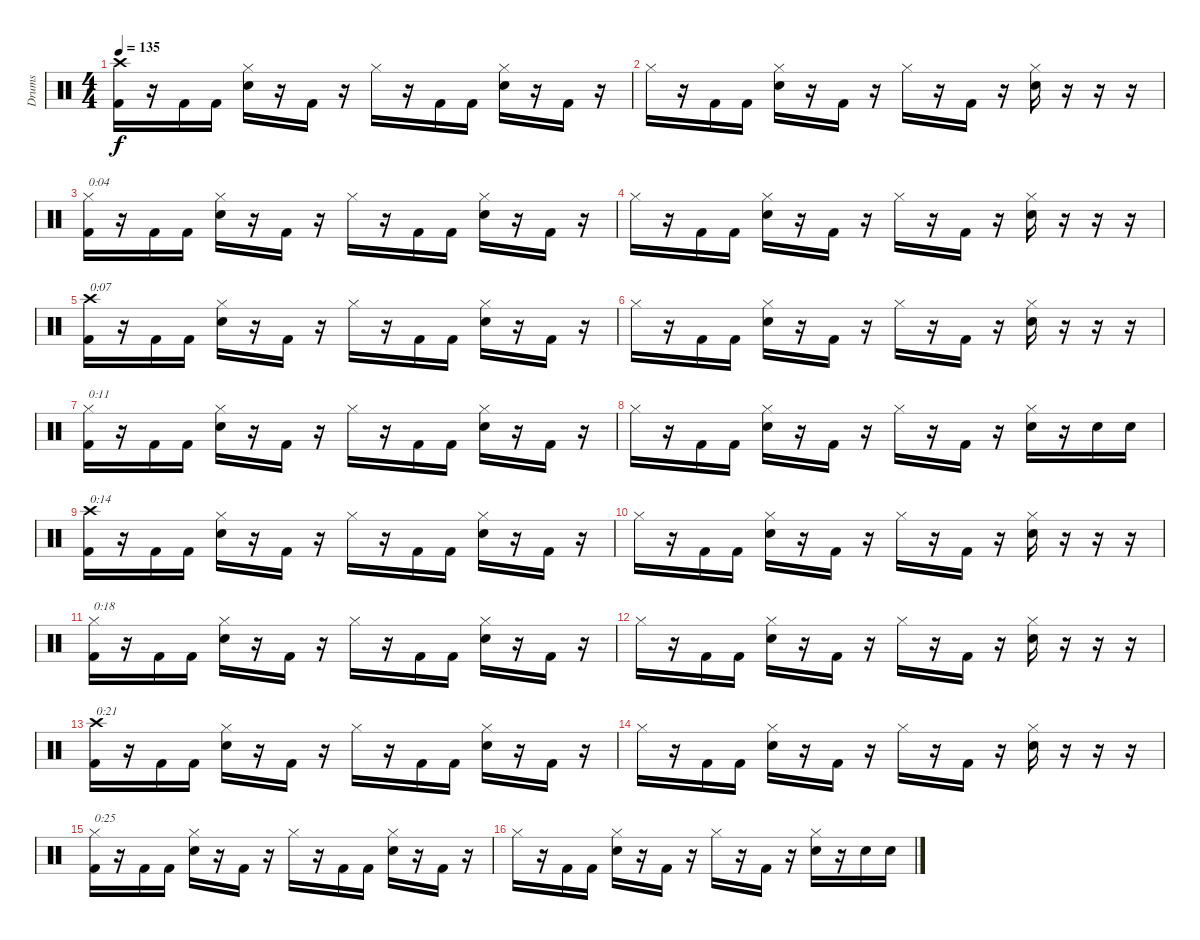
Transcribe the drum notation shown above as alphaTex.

\track ("Drums" "Drums") {instrument percussion}
\staff {score}
\articulation defaults
\ts (4 4)
\tempo 135
\clef neutral
\ks c
("Crash high (hit)" "Kick (hit) 2").16{dy f} r.16 "Kick (hit) 2".16 "Kick (hit) 2".16 ("Hi-Hat (closed)" "Electric Snare (hit)").16 r.16 "Kick (hit) 2".16 r.16 "Hi-Hat (closed)".16 r.16 "Kick (hit) 2".16 "Kick (hit) 2".16 ("Hi-Hat (closed)" "Electric Snare (hit)").16 r.16 "Kick (hit) 2".16 r.16 |
"Hi-Hat (closed)".16 r.16 "Kick (hit) 2".16 "Kick (hit) 2".16 ("Hi-Hat (closed)" "Electric Snare (hit)").16 r.16 "Kick (hit) 2".16 r.16 "Hi-Hat (closed)".16 r.16 "Kick (hit) 2".16 r.16 ("Hi-Hat (closed)" "Electric Snare (hit)").16 r.16 r.16 r.16 |
("Hi-Hat (closed)" "Kick (hit) 2").16{txt "0:04"} r.16 "Kick (hit) 2".16 "Kick (hit) 2".16 ("Hi-Hat (closed)" "Electric Snare (hit)").16 r.16 "Kick (hit) 2".16 r.16 "Hi-Hat (closed)".16 r.16 "Kick (hit) 2".16 "Kick (hit) 2".16 ("Hi-Hat (closed)" "Electric Snare (hit)").16 r.16 "Kick (hit) 2".16 r.16 |
"Hi-Hat (closed)".16 r.16 "Kick (hit) 2".16 "Kick (hit) 2".16 ("Hi-Hat (closed)" "Electric Snare (hit)").16 r.16 "Kick (hit) 2".16 r.16 "Hi-Hat (closed)".16 r.16 "Kick (hit) 2".16 r.16 ("Hi-Hat (closed)" "Electric Snare (hit)").16 r.16 r.16 r.16 |
("Crash high (hit)" "Kick (hit) 2").16{txt "0:07"} r.16 "Kick (hit) 2".16 "Kick (hit) 2".16 ("Hi-Hat (closed)" "Electric Snare (hit)").16 r.16 "Kick (hit) 2".16 r.16 "Hi-Hat (closed)".16 r.16 "Kick (hit) 2".16 "Kick (hit) 2".16 ("Hi-Hat (closed)" "Electric Snare (hit)").16 r.16 "Kick (hit) 2".16 r.16 |
"Hi-Hat (closed)".16 r.16 "Kick (hit) 2".16 "Kick (hit) 2".16 ("Hi-Hat (closed)" "Electric Snare (hit)").16 r.16 "Kick (hit) 2".16 r.16 "Hi-Hat (closed)".16 r.16 "Kick (hit) 2".16 r.16 ("Hi-Hat (closed)" "Electric Snare (hit)").16 r.16 r.16 r.16 |
("Hi-Hat (closed)" "Kick (hit) 2").16{txt "0:11"} r.16 "Kick (hit) 2".16 "Kick (hit) 2".16 ("Hi-Hat (closed)" "Electric Snare (hit)").16 r.16 "Kick (hit) 2".16 r.16 "Hi-Hat (closed)".16 r.16 "Kick (hit) 2".16 "Kick (hit) 2".16 ("Hi-Hat (closed)" "Electric Snare (hit)").16 r.16 "Kick (hit) 2".16 r.16 |
"Hi-Hat (closed)".16 r.16 "Kick (hit) 2".16 "Kick (hit) 2".16 ("Hi-Hat (closed)" "Electric Snare (hit)").16 r.16 "Kick (hit) 2".16 r.16 "Hi-Hat (closed)".16 r.16 "Kick (hit) 2".16 r.16 ("Hi-Hat (closed)" "Electric Snare (hit)").16 r.16 "Electric Snare (hit)".16 "Electric Snare (hit)".16 |
("Crash high (hit)" "Kick (hit) 2").16{txt "0:14"} r.16 "Kick (hit) 2".16 "Kick (hit) 2".16 ("Hi-Hat (closed)" "Electric Snare (hit)").16 r.16 "Kick (hit) 2".16 r.16 "Hi-Hat (closed)".16 r.16 "Kick (hit) 2".16 "Kick (hit) 2".16 ("Hi-Hat (closed)" "Electric Snare (hit)").16 r.16 "Kick (hit) 2".16 r.16 |
"Hi-Hat (closed)".16 r.16 "Kick (hit) 2".16 "Kick (hit) 2".16 ("Hi-Hat (closed)" "Electric Snare (hit)").16 r.16 "Kick (hit) 2".16 r.16 "Hi-Hat (closed)".16 r.16 "Kick (hit) 2".16 r.16 ("Hi-Hat (closed)" "Electric Snare (hit)").16 r.16 r.16 r.16 |
("Hi-Hat (closed)" "Kick (hit) 2").16{txt "0:18"} r.16 "Kick (hit) 2".16 "Kick (hit) 2".16 ("Hi-Hat (closed)" "Electric Snare (hit)").16 r.16 "Kick (hit) 2".16 r.16 "Hi-Hat (closed)".16 r.16 "Kick (hit) 2".16 "Kick (hit) 2".16 ("Hi-Hat (closed)" "Electric Snare (hit)").16 r.16 "Kick (hit) 2".16 r.16 |
"Hi-Hat (closed)".16 r.16 "Kick (hit) 2".16 "Kick (hit) 2".16 ("Hi-Hat (closed)" "Electric Snare (hit)").16 r.16 "Kick (hit) 2".16 r.16 "Hi-Hat (closed)".16 r.16 "Kick (hit) 2".16 r.16 ("Hi-Hat (closed)" "Electric Snare (hit)").16 r.16 r.16 r.16 |
("Crash high (hit)" "Kick (hit) 2").16{txt "0:21"} r.16 "Kick (hit) 2".16 "Kick (hit) 2".16 ("Hi-Hat (closed)" "Electric Snare (hit)").16 r.16 "Kick (hit) 2".16 r.16 "Hi-Hat (closed)".16 r.16 "Kick (hit) 2".16 "Kick (hit) 2".16 ("Hi-Hat (closed)" "Electric Snare (hit)").16 r.16 "Kick (hit) 2".16 r.16 |
"Hi-Hat (closed)".16 r.16 "Kick (hit) 2".16 "Kick (hit) 2".16 ("Hi-Hat (closed)" "Electric Snare (hit)").16 r.16 "Kick (hit) 2".16 r.16 "Hi-Hat (closed)".16 r.16 "Kick (hit) 2".16 r.16 ("Hi-Hat (closed)" "Electric Snare (hit)").16 r.16 r.16 r.16 |
("Hi-Hat (closed)" "Kick (hit) 2").16{txt "0:25"} r.16 "Kick (hit) 2".16 "Kick (hit) 2".16 ("Hi-Hat (closed)" "Electric Snare (hit)").16 r.16 "Kick (hit) 2".16 r.16 "Hi-Hat (closed)".16 r.16 "Kick (hit) 2".16 "Kick (hit) 2".16 ("Hi-Hat (closed)" "Electric Snare (hit)").16 r.16 "Kick (hit) 2".16 r.16 |
"Hi-Hat (closed)".16 r.16 "Kick (hit) 2".16 "Kick (hit) 2".16 ("Hi-Hat (closed)" "Electric Snare (hit)").16 r.16 "Kick (hit) 2".16 r.16 "Hi-Hat (closed)".16 r.16 "Kick (hit) 2".16 r.16 ("Hi-Hat (closed)" "Electric Snare (hit)").16 r.16 "Electric Snare (hit)".16 "Electric Snare (hit)".16
